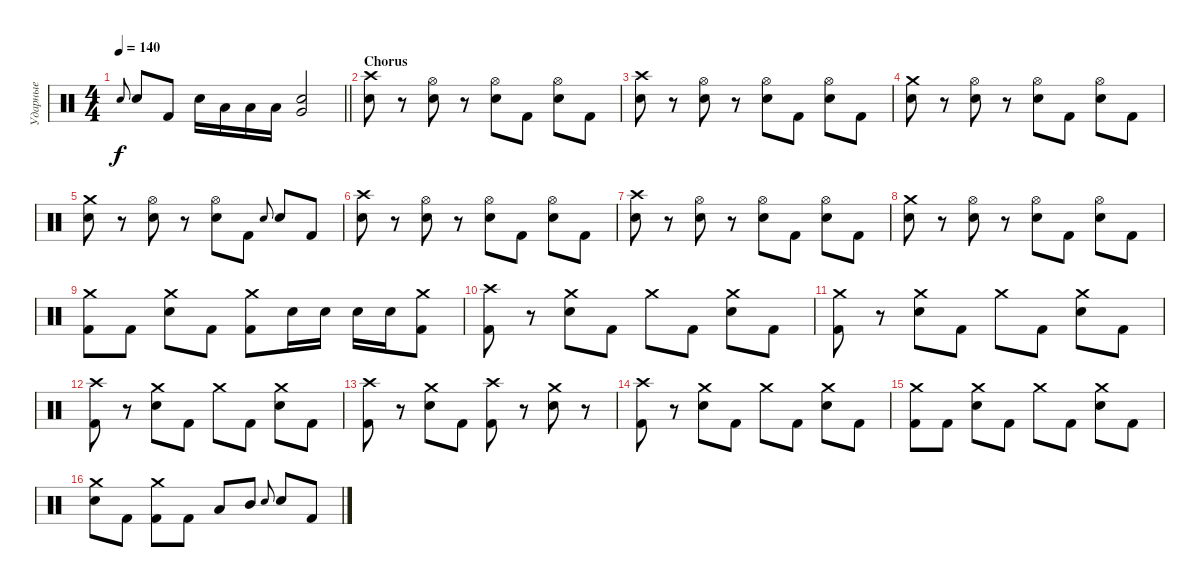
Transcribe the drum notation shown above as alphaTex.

\track ("Ударные" "Ударные") {instrument percussion}
\staff {score}
\articulation defaults
\ts (4 4)
\tempo 140
\clef neutral
\barLineRight lightlight
\ks c "Snare (hit) 2".8{gr onbeat dy f} "Snare (hit) 2".8 "Kick (hit) 2".8 "Snare (hit) 2".16 "Low Tom (hit)".16 "Low Tom (hit)".16 "Low Tom (hit)".16
("Snare (hit) 2" "Very Low Tom (hit)").2 |
\section ("" "Chorus")
("Crash high (hit)" "Snare (hit) 2").8 r.8 ("Hi-Hat (open)" "Snare (hit) 2").8 r.8 ("Hi-Hat (open)" "Snare (hit) 2").8 "Kick (hit) 2".8 ("Hi-Hat (open)" "Snare (hit) 2").8 "Kick (hit) 2".8 |
("Crash high (hit)" "Snare (hit) 2").8 r.8 ("Hi-Hat (open)" "Snare (hit) 2").8 r.8 ("Hi-Hat (open)" "Snare (hit) 2").8 "Kick (hit) 2".8 ("Hi-Hat (open)" "Snare (hit) 2").8 "Kick (hit) 2".8 |
("Crash medium (hit)" "Snare (hit) 2").8 r.8 ("Hi-Hat (open)" "Snare (hit) 2").8 r.8 ("Hi-Hat (open)" "Snare (hit) 2").8 "Kick (hit) 2".8 ("Hi-Hat (open)" "Snare (hit) 2").8 "Kick (hit) 2".8 |
("Crash medium (hit)" "Snare (hit) 2").8 r.8 ("Hi-Hat (open)" "Snare (hit) 2").8 r.8 ("Hi-Hat (open)" "Snare (hit) 2").8 "Kick (hit) 2".8 "Snare (hit) 2".8{gr onbeat} "Snare (hit) 2".8 "Kick (hit) 2".8 |
("Crash high (hit)" "Snare (hit) 2").8 r.8 ("Hi-Hat (open)" "Snare (hit) 2").8 r.8 ("Hi-Hat (open)" "Snare (hit) 2").8 "Kick (hit) 2".8 ("Hi-Hat (open)" "Snare (hit) 2").8 "Kick (hit) 2".8 |
("Crash high (hit)" "Snare (hit) 2").8 r.8 ("Hi-Hat (open)" "Snare (hit) 2").8 r.8 ("Hi-Hat (open)" "Snare (hit) 2").8 "Kick (hit) 2".8 ("Hi-Hat (open)" "Snare (hit) 2").8 "Kick (hit) 2".8 |
("Crash medium (hit)" "Snare (hit) 2").8 r.8 ("Hi-Hat (open)" "Snare (hit) 2").8 r.8 ("Hi-Hat (open)" "Snare (hit) 2").8 "Kick (hit) 2".8 ("Hi-Hat (open)" "Snare (hit) 2").8 "Kick (hit) 2".8 |
("Crash medium (hit)" "Kick (hit) 2").8 "Kick (hit) 2".8 ("Crash medium (hit)" "Snare (hit) 2").8 "Kick (hit) 2".8 ("Crash medium (hit)" "Kick (hit) 2").8 "Snare (hit) 2".16 "Snare (hit) 2".16 "Snare (hit) 2".16 "Snare (hit) 2".16 ("Crash medium (hit)" "Kick (hit) 2").8 |
("Crash high (hit)" "Kick (hit) 2").8 r.8 ("Crash medium (hit)" "Snare (hit) 2").8 "Kick (hit) 2".8 "Crash medium (hit)".8 "Kick (hit) 2".8 ("Crash medium (hit)" "Snare (hit) 2").8 "Kick (hit) 2".8 |
("Crash medium (hit)" "Kick (hit) 2").8 r.8 ("Crash medium (hit)" "Snare (hit) 2").8 "Kick (hit) 2".8 "Crash medium (hit)".8 "Kick (hit) 2".8 ("Crash medium (hit)" "Snare (hit) 2").8 "Kick (hit) 2".8 |
("Crash high (hit)" "Kick (hit) 2").8 r.8 ("Crash medium (hit)" "Snare (hit) 2").8 "Kick (hit) 2".8 "Crash medium (hit)".8 "Kick (hit) 2".8 ("Crash medium (hit)" "Snare (hit) 2").8 "Kick (hit) 2".8 |
("Crash high (hit)" "Kick (hit) 2").8 r.8 ("Crash medium (hit)" "Snare (hit) 2").8 "Kick (hit) 2".8 ("Crash high (hit)" "Kick (hit) 2").8 r.8 ("Crash medium (hit)" "Snare (hit) 2").8 r.8 |
("Crash high (hit)" "Kick (hit) 2").8 r.8 ("Crash medium (hit)" "Snare (hit) 2").8 "Kick (hit) 2".8 "Crash medium (hit)".8 "Kick (hit) 2".8 ("Crash medium (hit)" "Snare (hit) 2").8 "Kick (hit) 2".8 |
("Crash medium (hit)" "Kick (hit) 2").8 "Kick (hit) 2".8 ("Crash medium (hit)" "Snare (hit) 2").8 "Kick (hit) 2".8 "Crash medium (hit)".8 "Kick (hit) 2".8 ("Crash medium (hit)" "Snare (hit) 2").8 "Kick (hit) 2".8 |
("Crash medium (hit)" "Snare (hit) 2").8 "Kick (hit) 2".8 ("Crash medium (hit)" "Kick (hit) 2").8 "Kick (hit) 2".8 "Low Tom (hit)".8 "Mid Tom (hit)".8 "Snare (hit) 2".8{gr onbeat} "Snare (hit) 2".8 "Kick (hit) 2".8
